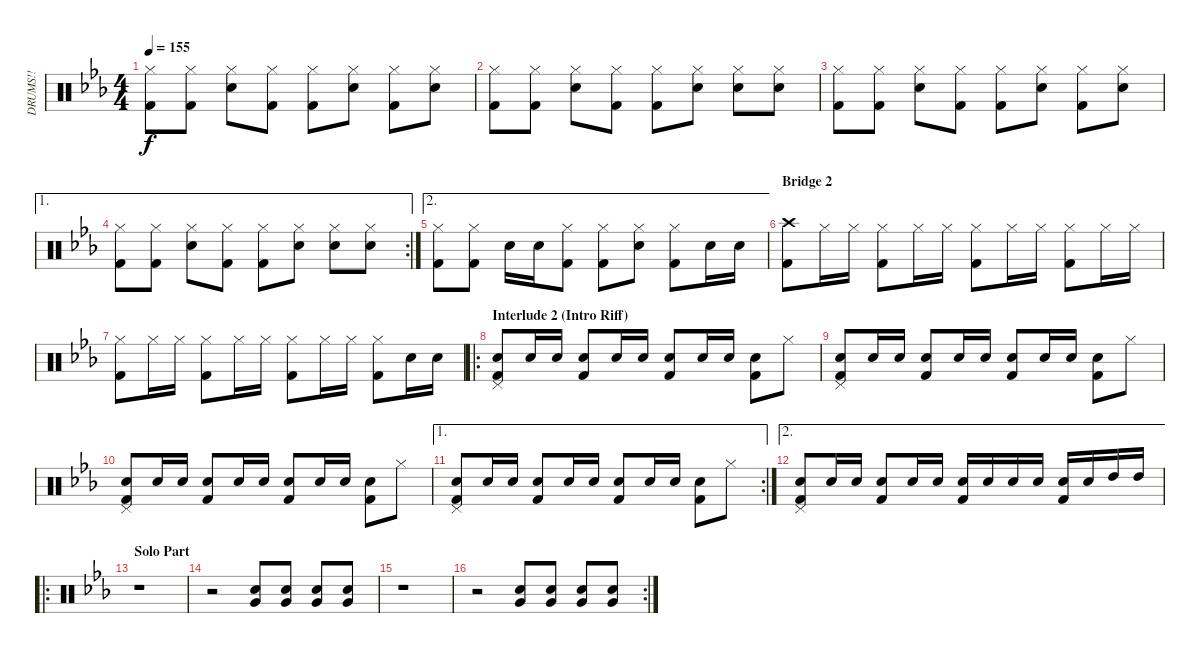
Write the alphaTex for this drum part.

\track ("DRUMS!!" "DRUMS!!") {instrument percussion}
\staff {score}
\articulation defaults
\ts (4 4)
\tempo 155
\clef neutral
\ks eb
("Hi-Hat (closed)" "Kick (hit) 2").8{dy f} ("Hi-Hat (closed)" "Kick (hit) 2").8 ("Hi-Hat (closed)" "Snare (hit) 2").8 ("Hi-Hat (closed)" "Kick (hit) 2").8 ("Hi-Hat (closed)" "Kick (hit) 2").8 ("Hi-Hat (closed)" "Snare (hit) 2").8 ("Hi-Hat (closed)" "Kick (hit) 2").8 ("Hi-Hat (closed)" "Snare (hit) 2").8 |
("Hi-Hat (closed)" "Kick (hit) 2").8 ("Hi-Hat (closed)" "Kick (hit) 2").8 ("Hi-Hat (closed)" "Snare (hit) 2").8 ("Hi-Hat (closed)" "Kick (hit) 2").8 ("Hi-Hat (closed)" "Kick (hit) 2").8 ("Hi-Hat (closed)" "Snare (hit) 2").8 ("Hi-Hat (closed)" "Snare (hit) 2").8 ("Hi-Hat (closed)" "Snare (hit) 2").8 |
("Hi-Hat (closed)" "Kick (hit) 2").8 ("Hi-Hat (closed)" "Kick (hit) 2").8 ("Hi-Hat (closed)" "Snare (hit) 2").8 ("Hi-Hat (closed)" "Kick (hit) 2").8 ("Hi-Hat (closed)" "Kick (hit) 2").8 ("Hi-Hat (closed)" "Snare (hit) 2").8 ("Hi-Hat (closed)" "Kick (hit) 2").8 ("Hi-Hat (closed)" "Snare (hit) 2").8 |
\ae 1
\rc 2
("Hi-Hat (closed)" "Kick (hit) 2").8 ("Hi-Hat (closed)" "Kick (hit) 2").8 ("Hi-Hat (closed)" "Snare (hit) 2").8 ("Hi-Hat (closed)" "Kick (hit) 2").8 ("Hi-Hat (closed)" "Kick (hit) 2").8 ("Hi-Hat (closed)" "Snare (hit) 2").8 ("Hi-Hat (closed)" "Snare (hit) 2").8 ("Hi-Hat (closed)" "Snare (hit) 2").8 |
\ae 2
("Hi-Hat (closed)" "Kick (hit) 2").8 ("Hi-Hat (closed)" "Kick (hit) 2").8 "Snare (hit) 2".16 "Snare (hit) 2".16 ("Hi-Hat (closed)" "Kick (hit) 2").8 ("Hi-Hat (closed)" "Kick (hit) 2").8 ("Hi-Hat (closed)" "Snare (hit) 2").8 ("Hi-Hat (closed)" "Kick (hit) 2").8 "Snare (hit) 2".16 "Snare (hit) 2".16 |
\section ("" "Bridge 2")
("Crash high (hit)" "Kick (hit) 2").8 "Hi-Hat (closed)".16 "Hi-Hat (closed)".16 ("Hi-Hat (closed)" "Kick (hit) 2").8 "Hi-Hat (closed)".16 "Hi-Hat (closed)".16 ("Hi-Hat (closed)" "Kick (hit) 2").8 "Hi-Hat (closed)".16 "Hi-Hat (closed)".16 ("Hi-Hat (closed)" "Kick (hit) 2").8 "Hi-Hat (closed)".16 "Hi-Hat (closed)".16 |
("Hi-Hat (closed)" "Kick (hit) 2").8 "Hi-Hat (closed)".16 "Hi-Hat (closed)".16 ("Hi-Hat (closed)" "Kick (hit) 2").8 "Hi-Hat (closed)".16 "Hi-Hat (closed)".16 ("Hi-Hat (closed)" "Kick (hit) 2").8 "Hi-Hat (closed)".16 "Hi-Hat (closed)".16 ("Hi-Hat (closed)" "Kick (hit) 2").8 "Snare (hit) 2".16 "Snare (hit) 2".16 |
\ro
\section ("" "Interlude 2 (Intro Riff)")
("Pedal Hi-Hat (hit)" "Snare (hit) 2" "Kick (hit) 2").8 "Snare (hit) 2".16 "Snare (hit) 2".16 ("Snare (hit) 2" "Kick (hit) 2").8 "Snare (hit) 2".16 "Snare (hit) 2".16 ("Snare (hit) 2" "Kick (hit) 2").8 "Snare (hit) 2".16 "Snare (hit) 2".16 ("Snare (hit) 2" "Kick (hit) 2").8 "Hi-Hat (closed)".8 |
("Pedal Hi-Hat (hit)" "Snare (hit) 2" "Kick (hit) 2").8 "Snare (hit) 2".16 "Snare (hit) 2".16 ("Snare (hit) 2" "Kick (hit) 2").8 "Snare (hit) 2".16 "Snare (hit) 2".16 ("Snare (hit) 2" "Kick (hit) 2").8 "Snare (hit) 2".16 "Snare (hit) 2".16 ("Snare (hit) 2" "Kick (hit) 2").8 "Hi-Hat (closed)".8 |
("Pedal Hi-Hat (hit)" "Snare (hit) 2" "Kick (hit) 2").8 "Snare (hit) 2".16 "Snare (hit) 2".16 ("Snare (hit) 2" "Kick (hit) 2").8 "Snare (hit) 2".16 "Snare (hit) 2".16 ("Snare (hit) 2" "Kick (hit) 2").8 "Snare (hit) 2".16 "Snare (hit) 2".16 ("Snare (hit) 2" "Kick (hit) 2").8 "Hi-Hat (closed)".8 |
\ae 1
\rc 2
("Pedal Hi-Hat (hit)" "Snare (hit) 2" "Kick (hit) 2").8 "Snare (hit) 2".16 "Snare (hit) 2".16 ("Snare (hit) 2" "Kick (hit) 2").8 "Snare (hit) 2".16 "Snare (hit) 2".16 ("Snare (hit) 2" "Kick (hit) 2").8 "Snare (hit) 2".16 "Snare (hit) 2".16 ("Snare (hit) 2" "Kick (hit) 2").8 "Hi-Hat (closed)".8 |
\ae 2
("Pedal Hi-Hat (hit)" "Snare (hit) 2" "Kick (hit) 2").8 "Snare (hit) 2".16 "Snare (hit) 2".16 ("Snare (hit) 2" "Kick (hit) 2").8 "Snare (hit) 2".16 "Snare (hit) 2".16 ("Snare (hit) 2" "Kick (hit) 2").16 "Snare (hit) 2".16 "Snare (hit) 2".16 "Snare (hit) 2".16 ("Snare (hit) 2" "Kick (hit) 2").16 "Snare (hit) 2".16 "High Tom (hit)".16 "High Tom (hit)".16 |
\ro
\section ("" "Solo Part")
r.1 |
r.2 ("Snare (hit) 2" "Very Low Tom (hit)").8 ("Snare (hit) 2" "Very Low Tom (hit)").8 ("Snare (hit) 2" "Very Low Tom (hit)").8 ("Snare (hit) 2" "Very Low Tom (hit)").8 |
r.1 |
\rc 2
r.2 ("Snare (hit) 2" "Very Low Tom (hit)").8 ("Snare (hit) 2" "Very Low Tom (hit)").8 ("Snare (hit) 2" "Very Low Tom (hit)").8 ("Snare (hit) 2" "Very Low Tom (hit)").8
